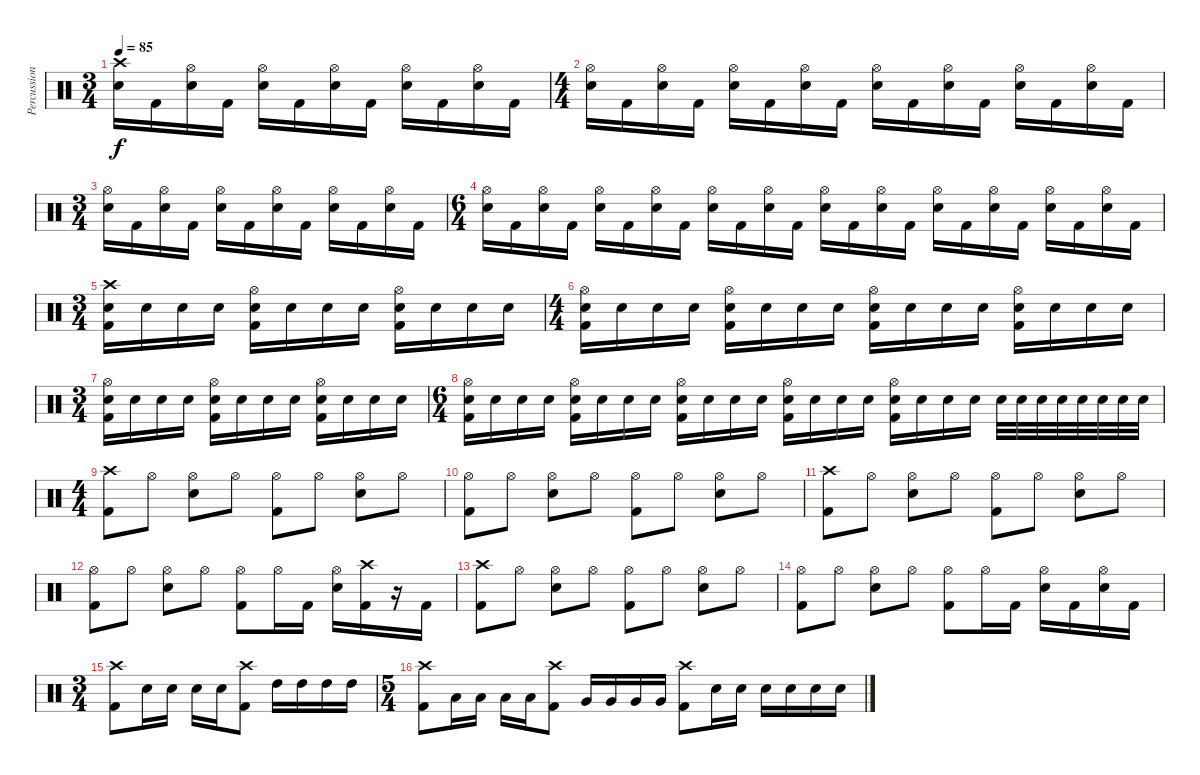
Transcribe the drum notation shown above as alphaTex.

\track ("Percussion" "Percussion") {instrument percussion}
\staff {score}
\articulation defaults
\ts (3 4)
\tempo 85
\clef neutral
\ks c
("Crash high (hit)" "Electric Snare (hit)").16{dy f} "Kick (hit) 2".16 ("Hi-Hat (open)" "Electric Snare (hit)").16 "Kick (hit) 2".16 ("Hi-Hat (open)" "Electric Snare (hit)").16 "Kick (hit) 2".16 ("Hi-Hat (open)" "Electric Snare (hit)").16 "Kick (hit) 2".16 ("Hi-Hat (open)" "Electric Snare (hit)").16 "Kick (hit) 2".16 ("Hi-Hat (open)" "Electric Snare (hit)").16 "Kick (hit) 2".16 |
\ts (4 4)
("Hi-Hat (open)" "Electric Snare (hit)").16 "Kick (hit) 2".16 ("Hi-Hat (open)" "Electric Snare (hit)").16 "Kick (hit) 2".16 ("Hi-Hat (open)" "Electric Snare (hit)").16 "Kick (hit) 2".16 ("Hi-Hat (open)" "Electric Snare (hit)").16 "Kick (hit) 2".16 ("Hi-Hat (open)" "Electric Snare (hit)").16 "Kick (hit) 2".16 ("Hi-Hat (open)" "Electric Snare (hit)").16 "Kick (hit) 2".16 ("Hi-Hat (open)" "Electric Snare (hit)").16 "Kick (hit) 2".16 ("Hi-Hat (open)" "Electric Snare (hit)").16 "Kick (hit) 2".16 |
\ts (3 4)
("Hi-Hat (open)" "Electric Snare (hit)").16 "Kick (hit) 2".16 ("Hi-Hat (open)" "Electric Snare (hit)").16 "Kick (hit) 2".16 ("Hi-Hat (open)" "Electric Snare (hit)").16 "Kick (hit) 2".16 ("Hi-Hat (open)" "Electric Snare (hit)").16 "Kick (hit) 2".16 ("Hi-Hat (open)" "Electric Snare (hit)").16 "Kick (hit) 2".16 ("Hi-Hat (open)" "Electric Snare (hit)").16 "Kick (hit) 2".16 |
\ts (6 4)
("Hi-Hat (open)" "Electric Snare (hit)").16 "Kick (hit) 2".16 ("Hi-Hat (open)" "Electric Snare (hit)").16 "Kick (hit) 2".16 ("Hi-Hat (open)" "Electric Snare (hit)").16 "Kick (hit) 2".16 ("Hi-Hat (open)" "Electric Snare (hit)").16 "Kick (hit) 2".16 ("Hi-Hat (open)" "Electric Snare (hit)").16 "Kick (hit) 2".16 ("Hi-Hat (open)" "Electric Snare (hit)").16 "Kick (hit) 2".16 ("Hi-Hat (open)" "Electric Snare (hit)").16 "Kick (hit) 2".16 ("Hi-Hat (open)" "Electric Snare (hit)").16 "Kick (hit) 2".16 ("Hi-Hat (open)" "Electric Snare (hit)").16 "Kick (hit) 2".16 ("Hi-Hat (open)" "Electric Snare (hit)").16 "Kick (hit) 2".16 ("Hi-Hat (open)" "Electric Snare (hit)").16 "Kick (hit) 2".16 ("Hi-Hat (open)" "Electric Snare (hit)").16 "Kick (hit) 2".16 |
\ts (3 4)
("Crash high (hit)" "Electric Snare (hit)" "Kick (hit) 2").16 "Electric Snare (hit)".16 "Electric Snare (hit)".16 "Electric Snare (hit)".16 ("Hi-Hat (open)" "Electric Snare (hit)" "Kick (hit) 2").16 "Electric Snare (hit)".16 "Electric Snare (hit)".16 "Electric Snare (hit)".16 ("Hi-Hat (open)" "Electric Snare (hit)" "Kick (hit) 2").16 "Electric Snare (hit)".16 "Electric Snare (hit)".16 "Electric Snare (hit)".16 |
\ts (4 4)
("Hi-Hat (open)" "Electric Snare (hit)" "Kick (hit) 2").16 "Electric Snare (hit)".16 "Electric Snare (hit)".16 "Electric Snare (hit)".16 ("Hi-Hat (open)" "Electric Snare (hit)" "Kick (hit) 2").16 "Electric Snare (hit)".16 "Electric Snare (hit)".16 "Electric Snare (hit)".16 ("Hi-Hat (open)" "Electric Snare (hit)" "Kick (hit) 2").16 "Electric Snare (hit)".16 "Electric Snare (hit)".16 "Electric Snare (hit)".16 ("Hi-Hat (open)" "Electric Snare (hit)" "Kick (hit) 2").16 "Electric Snare (hit)".16 "Electric Snare (hit)".16 "Electric Snare (hit)".16 |
\ts (3 4)
("Hi-Hat (open)" "Electric Snare (hit)" "Kick (hit) 2").16 "Electric Snare (hit)".16 "Electric Snare (hit)".16 "Electric Snare (hit)".16 ("Hi-Hat (open)" "Electric Snare (hit)" "Kick (hit) 2").16 "Electric Snare (hit)".16 "Electric Snare (hit)".16 "Electric Snare (hit)".16 ("Hi-Hat (open)" "Electric Snare (hit)" "Kick (hit) 2").16 "Electric Snare (hit)".16 "Electric Snare (hit)".16 "Electric Snare (hit)".16 |
\ts (6 4)
("Hi-Hat (open)" "Electric Snare (hit)" "Kick (hit) 2").16 "Electric Snare (hit)".16 "Electric Snare (hit)".16 "Electric Snare (hit)".16 ("Hi-Hat (open)" "Electric Snare (hit)" "Kick (hit) 2").16 "Electric Snare (hit)".16 "Electric Snare (hit)".16 "Electric Snare (hit)".16 ("Hi-Hat (open)" "Electric Snare (hit)" "Kick (hit) 2").16 "Electric Snare (hit)".16 "Electric Snare (hit)".16 "Electric Snare (hit)".16 ("Hi-Hat (open)" "Electric Snare (hit)" "Kick (hit) 2").16 "Electric Snare (hit)".16 "Electric Snare (hit)".16 "Electric Snare (hit)".16 ("Hi-Hat (open)" "Electric Snare (hit)" "Kick (hit) 2").16 "Electric Snare (hit)".16 "Electric Snare (hit)".16 "Electric Snare (hit)".16 "Electric Snare (hit)".32 "Electric Snare (hit)".32 "Electric Snare (hit)".32 "Electric Snare (hit)".32 "Electric Snare (hit)".32 "Electric Snare (hit)".32 "Electric Snare (hit)".32 "Electric Snare (hit)".32 |
\ts (4 4)
("Crash high (hit)" "Kick (hit) 2").8 "Hi-Hat (open)".8 ("Hi-Hat (open)" "Electric Snare (hit)").8 "Hi-Hat (open)".8 ("Hi-Hat (open)" "Kick (hit) 2").8 "Hi-Hat (open)".8 ("Hi-Hat (open)" "Electric Snare (hit)").8 "Hi-Hat (open)".8 |
("Hi-Hat (open)" "Kick (hit) 2").8 "Hi-Hat (open)".8 ("Hi-Hat (open)" "Electric Snare (hit)").8 "Hi-Hat (open)".8 ("Hi-Hat (open)" "Kick (hit) 2").8 "Hi-Hat (open)".8 ("Hi-Hat (open)" "Electric Snare (hit)").8 "Hi-Hat (open)".8 |
("Crash high (hit)" "Kick (hit) 2").8 "Hi-Hat (open)".8 ("Hi-Hat (open)" "Electric Snare (hit)").8 "Hi-Hat (open)".8 ("Hi-Hat (open)" "Kick (hit) 2").8 "Hi-Hat (open)".8 ("Hi-Hat (open)" "Electric Snare (hit)").8 "Hi-Hat (open)".8 |
("Hi-Hat (open)" "Kick (hit) 2").8 "Hi-Hat (open)".8 ("Hi-Hat (open)" "Electric Snare (hit)").8 "Hi-Hat (open)".8 ("Hi-Hat (open)" "Kick (hit) 2").8 "Hi-Hat (open)".16 "Kick (hit) 2".16 ("Hi-Hat (open)" "Electric Snare (hit)").16 ("Crash high (hit)" "Kick (hit) 2").16 r.16 "Kick (hit) 2".16 |
("Crash high (hit)" "Kick (hit) 2").8 "Hi-Hat (open)".8 ("Hi-Hat (open)" "Electric Snare (hit)").8 "Hi-Hat (open)".8 ("Hi-Hat (open)" "Kick (hit) 2").8 "Hi-Hat (open)".8 ("Hi-Hat (open)" "Electric Snare (hit)").8 "Hi-Hat (open)".8 |
("Hi-Hat (open)" "Kick (hit) 2").8 "Hi-Hat (open)".8 ("Hi-Hat (open)" "Electric Snare (hit)").8 "Hi-Hat (open)".8 ("Hi-Hat (open)" "Kick (hit) 2").8 "Hi-Hat (open)".16 "Kick (hit) 2".16 ("Hi-Hat (open)" "Electric Snare (hit)").16 "Kick (hit) 2".16 ("Hi-Hat (open)" "Electric Snare (hit)").16 "Kick (hit) 2".16 |
\ts (3 4)
("Crash high (hit)" "Kick (hit) 2").8 "Electric Snare (hit)".16 "Electric Snare (hit)".16 "Electric Snare (hit)".16 "Electric Snare (hit)".16 ("Crash high (hit)" "Kick (hit) 2").8 "High Tom (hit)".16 "High Tom (hit)".16 "High Tom (hit)".16 "High Tom (hit)".16 |
\ts (5 4)
("Crash high (hit)" "Kick (hit) 2").8 "Low Tom (hit)".16 "Low Tom (hit)".16 "Low Tom (hit)".16 "Low Tom (hit)".16 ("Crash high (hit)" "Kick (hit) 2").8 "Very Low Tom (hit)".16 "Very Low Tom (hit)".16 "Very Low Tom (hit)".16 "Very Low Tom (hit)".16 ("Crash high (hit)" "Kick (hit) 2").8 "Electric Snare (hit)".16 "Electric Snare (hit)".16 "Electric Snare (hit)".16 "Electric Snare (hit)".16 "Electric Snare (hit)".16 "Electric Snare (hit)".16
